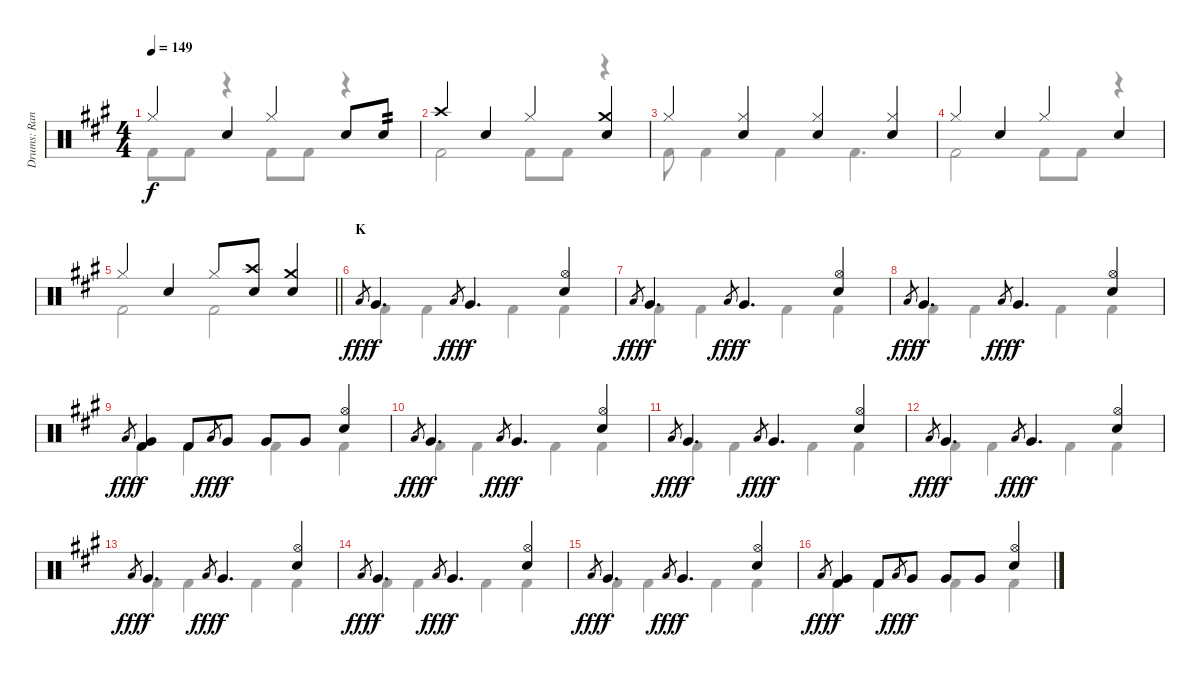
\track ("Drums: Randy" "Drums: Ran") {instrument percussion}
\staff {score}
\articulation defaults
\voice
\ts (4 4)
\tempo 149
\clef neutral
\ks a "Hi-Hat (closed)".4{dy f} "Snare (hit) 2".4 "Hi-Hat (closed)".4 "Snare (hit) 2".8 "Snare (hit) 2".8{tp 2}
|
"Crash high (hit)".4 "Snare (hit) 2".4 "Hi-Hat (closed)".4 ("Crash medium (hit)" "Snare (hit) 2").4 |
"Hi-Hat (closed)".4 ("Hi-Hat (closed)" "Snare (hit) 2").4 ("Hi-Hat (closed)" "Snare (hit) 2").4 ("Hi-Hat (closed)" "Snare (hit) 2").4 |
"Hi-Hat (closed)".4 "Snare (hit) 2".4 "Hi-Hat (closed)".4 "Snare (hit) 2".4 |
\barLineRight lightlight "Hi-Hat (closed)".4 "Snare (hit) 2".4 "Hi-Hat (closed)".8
("Crash high (hit)" "Snare (hit) 2").8 ("Crash medium (hit)" "Snare (hit) 2").4 |
\section ("" "K")
"Low Tom (hit)".8{gr dy fff} "Very Low Tom (hit)".4{d dy f} "Low Tom (hit)".8{gr dy fff} "Very Low Tom (hit)".4{d dy f} ("Hi-Hat (open)" "Snare (hit) 2").4 |
"Low Tom (hit)".8{gr dy fff} "Very Low Tom (hit)".4{d dy f} "Low Tom (hit)".8{gr dy fff} "Very Low Tom (hit)".4{d dy f} ("Hi-Hat (open)" "Snare (hit) 2").4 |
"Low Tom (hit)".8{gr dy fff} "Very Low Tom (hit)".4{d dy f} "Low Tom (hit)".8{gr dy fff} "Very Low Tom (hit)".4{d dy f} ("Hi-Hat (open)" "Snare (hit) 2").4 |
"Low Tom (hit)".8{gr dy fff} ("Very Low Tom (hit)" "Kick (hit) 2").4{dy f} "Kick (hit) 2".8 "Low Tom (hit)".8{gr dy fff} "Very Low Tom (hit)".8{dy f} "Very Low Tom (hit)".8 "Very Low Tom (hit)".8 ("Hi-Hat (open)" "Snare (hit) 2").4 |
"Low Tom (hit)".8{gr dy fff} "Very Low Tom (hit)".4{d dy f} "Low Tom (hit)".8{gr dy fff} "Very Low Tom (hit)".4{d dy f} ("Hi-Hat (open)" "Snare (hit) 2").4 |
"Low Tom (hit)".8{gr dy fff} "Very Low Tom (hit)".4{d dy f} "Low Tom (hit)".8{gr dy fff} "Very Low Tom (hit)".4{d dy f} ("Hi-Hat (open)" "Snare (hit) 2").4 |
"Low Tom (hit)".8{gr dy fff} "Very Low Tom (hit)".4{d dy f} "Low Tom (hit)".8{gr dy fff} "Very Low Tom (hit)".4{d dy f} ("Hi-Hat (open)" "Snare (hit) 2").4 |
"Low Tom (hit)".8{gr dy fff} "Very Low Tom (hit)".4{d dy f} "Low Tom (hit)".8{gr dy fff} "Very Low Tom (hit)".4{d dy f} ("Hi-Hat (open)" "Snare (hit) 2").4 |
"Low Tom (hit)".8{gr dy fff} "Very Low Tom (hit)".4{d dy f} "Low Tom (hit)".8{gr dy fff} "Very Low Tom (hit)".4{d dy f} ("Hi-Hat (open)" "Snare (hit) 2").4 |
"Low Tom (hit)".8{gr dy fff} "Very Low Tom (hit)".4{d dy f} "Low Tom (hit)".8{gr dy fff} "Very Low Tom (hit)".4{d dy f} ("Hi-Hat (open)" "Snare (hit) 2").4 |
"Low Tom (hit)".8{gr dy fff} ("Very Low Tom (hit)" "Kick (hit) 2").4{dy f} "Kick (hit) 2".8 "Low Tom (hit)".8{gr dy fff} "Very Low Tom (hit)".8{dy f} "Very Low Tom (hit)".8 "Very Low Tom (hit)".8 ("Hi-Hat (open)" "Snare (hit) 2").4
\voice
\clef neutral
\ottava regular
\simile none
\ks a "Kick (hit) 2".8{dy f} "Kick (hit) 2".8
r.4 "Kick (hit) 2".8 "Kick (hit) 2".8 r.4 |
"Kick (hit) 2".2 "Kick (hit) 2".8 "Kick (hit) 2".8 r.4 |
"Kick (hit) 2".8 "Kick (hit) 2".4 "Kick (hit) 2".4 "Kick (hit) 2".4{d} |
"Kick (hit) 2".2 "Kick (hit) 2".8 "Kick (hit) 2".8 r.4 |
\barLineRight lightlight "Kick (hit) 2".2 "Kick (hit) 2".2
|
"Kick (hit) 2".4 "Kick (hit) 2".4 "Kick (hit) 2".4 "Kick (hit) 2".4 |
"Kick (hit) 2".4 "Kick (hit) 2".4 "Kick (hit) 2".4 "Kick (hit) 2".4 |
"Kick (hit) 2".4 "Kick (hit) 2".4 "Kick (hit) 2".4 "Kick (hit) 2".4 |
"Kick (hit) 2".4 "Kick (hit) 2".4 "Kick (hit) 2".4 "Kick (hit) 2".4 |
"Kick (hit) 2".4 "Kick (hit) 2".4 "Kick (hit) 2".4 "Kick (hit) 2".4 |
"Kick (hit) 2".4 "Kick (hit) 2".4 "Kick (hit) 2".4 "Kick (hit) 2".4 |
"Kick (hit) 2".4 "Kick (hit) 2".4 "Kick (hit) 2".4 "Kick (hit) 2".4 |
"Kick (hit) 2".4 "Kick (hit) 2".4 "Kick (hit) 2".4 "Kick (hit) 2".4 |
"Kick (hit) 2".4 "Kick (hit) 2".4 "Kick (hit) 2".4 "Kick (hit) 2".4 |
"Kick (hit) 2".4 "Kick (hit) 2".4 "Kick (hit) 2".4 "Kick (hit) 2".4 |
"Kick (hit) 2".4 "Kick (hit) 2".4 "Kick (hit) 2".4 "Kick (hit) 2".4
